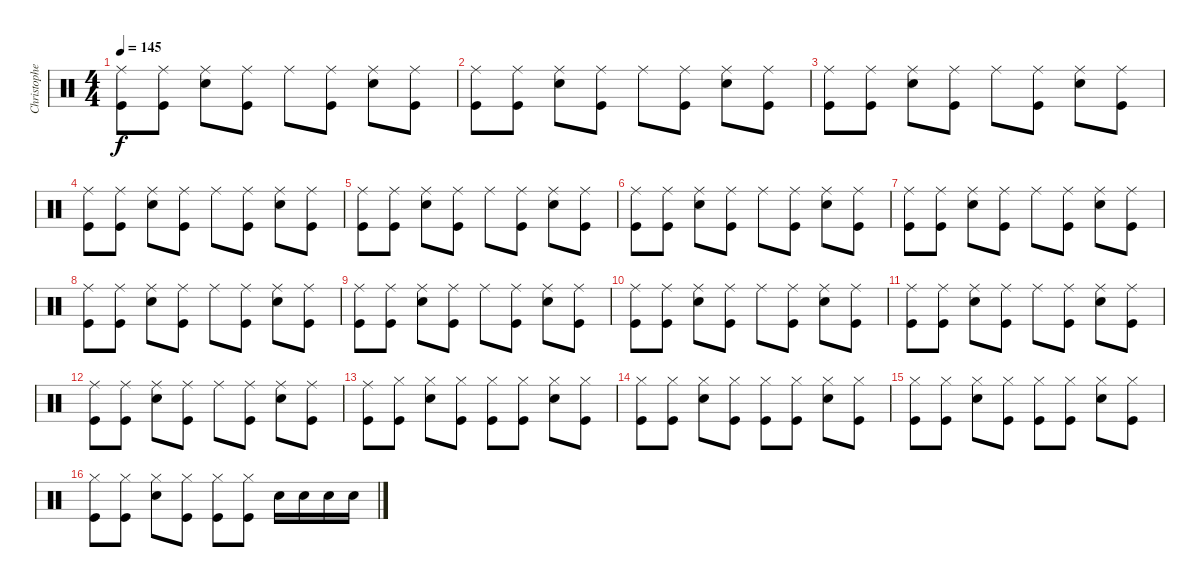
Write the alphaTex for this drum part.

\track ("Christopher - Drums" "Christophe") {instrument percussion}
\staff {score}
\articulation defaults
\ts (4 4)
\tempo 145
\clef neutral
\ks c
("Ride (middle)" "Kick (hit)").8{dy f} ("Ride (middle)" "Kick (hit)").8 ("Ride (middle)" "Snare (hit) 2").8 ("Ride (middle)" "Kick (hit)").8 "Ride (middle)".8 ("Ride (middle)" "Kick (hit)").8 ("Ride (middle)" "Snare (hit) 2").8 ("Ride (middle)" "Kick (hit)").8 |
("Ride (middle)" "Kick (hit)").8 ("Ride (middle)" "Kick (hit)").8 ("Ride (middle)" "Snare (hit) 2").8 ("Ride (middle)" "Kick (hit)").8 "Ride (middle)".8 ("Ride (middle)" "Kick (hit)").8 ("Ride (middle)" "Snare (hit) 2").8 ("Ride (middle)" "Kick (hit)").8 |
("Ride (middle)" "Kick (hit)").8 ("Ride (middle)" "Kick (hit)").8 ("Ride (middle)" "Snare (hit) 2").8 ("Ride (middle)" "Kick (hit)").8 "Ride (middle)".8 ("Ride (middle)" "Kick (hit)").8 ("Ride (middle)" "Snare (hit) 2").8 ("Ride (middle)" "Kick (hit)").8 |
("Ride (middle)" "Kick (hit)").8 ("Ride (middle)" "Kick (hit)").8 ("Ride (middle)" "Snare (hit) 2").8 ("Ride (middle)" "Kick (hit)").8 "Ride (middle)".8 ("Ride (middle)" "Kick (hit)").8 ("Ride (middle)" "Snare (hit) 2").8 ("Ride (middle)" "Kick (hit)").8 |
("Ride (middle)" "Kick (hit)").8 ("Ride (middle)" "Kick (hit)").8 ("Ride (middle)" "Snare (hit) 2").8 ("Ride (middle)" "Kick (hit)").8 "Ride (middle)".8 ("Ride (middle)" "Kick (hit)").8 ("Ride (middle)" "Snare (hit) 2").8 ("Ride (middle)" "Kick (hit)").8 |
("Ride (middle)" "Kick (hit)").8 ("Ride (middle)" "Kick (hit)").8 ("Ride (middle)" "Snare (hit) 2").8 ("Ride (middle)" "Kick (hit)").8 "Ride (middle)".8 ("Ride (middle)" "Kick (hit)").8 ("Ride (middle)" "Snare (hit) 2").8 ("Ride (middle)" "Kick (hit)").8 |
("Ride (middle)" "Kick (hit)").8 ("Ride (middle)" "Kick (hit)").8 ("Ride (middle)" "Snare (hit) 2").8 ("Ride (middle)" "Kick (hit)").8 "Ride (middle)".8 ("Ride (middle)" "Kick (hit)").8 ("Ride (middle)" "Snare (hit) 2").8 ("Ride (middle)" "Kick (hit)").8 |
("Ride (middle)" "Kick (hit)").8 ("Ride (middle)" "Kick (hit)").8 ("Ride (middle)" "Snare (hit) 2").8 ("Ride (middle)" "Kick (hit)").8 "Ride (middle)".8 ("Ride (middle)" "Kick (hit)").8 ("Ride (middle)" "Snare (hit) 2").8 ("Ride (middle)" "Kick (hit)").8 |
("Ride (middle)" "Kick (hit)").8 ("Ride (middle)" "Kick (hit)").8 ("Ride (middle)" "Snare (hit) 2").8 ("Ride (middle)" "Kick (hit)").8 "Ride (middle)".8 ("Ride (middle)" "Kick (hit)").8 ("Ride (middle)" "Snare (hit) 2").8 ("Ride (middle)" "Kick (hit)").8 |
("Ride (middle)" "Kick (hit)").8 ("Ride (middle)" "Kick (hit)").8 ("Ride (middle)" "Snare (hit) 2").8 ("Ride (middle)" "Kick (hit)").8 "Ride (middle)".8 ("Ride (middle)" "Kick (hit)").8 ("Ride (middle)" "Snare (hit) 2").8 ("Ride (middle)" "Kick (hit)").8 |
("Ride (middle)" "Kick (hit)").8 ("Ride (middle)" "Kick (hit)").8 ("Ride (middle)" "Snare (hit) 2").8 ("Ride (middle)" "Kick (hit)").8 "Ride (middle)".8 ("Ride (middle)" "Kick (hit)").8 ("Ride (middle)" "Snare (hit) 2").8 ("Ride (middle)" "Kick (hit)").8 |
("Ride (middle)" "Kick (hit)").8 ("Ride (middle)" "Kick (hit)").8 ("Ride (middle)" "Snare (hit) 2").8 ("Ride (middle)" "Kick (hit)").8 "Ride (middle)".8 ("Ride (middle)" "Kick (hit)").8 ("Ride (middle)" "Snare (hit) 2").8 ("Ride (middle)" "Kick (hit)").8 |
("Ride (middle)" "Kick (hit)").8 ("Hi-Hat (closed)" "Kick (hit)").8 ("Hi-Hat (closed)" "Snare (hit) 2").8 ("Hi-Hat (closed)" "Kick (hit)").8 ("Hi-Hat (closed)" "Kick (hit)").8 ("Hi-Hat (closed)" "Kick (hit)").8 ("Hi-Hat (closed)" "Snare (hit) 2").8 ("Hi-Hat (closed)" "Kick (hit)").8 |
("Hi-Hat (closed)" "Kick (hit)").8 ("Hi-Hat (closed)" "Kick (hit)").8 ("Hi-Hat (closed)" "Snare (hit) 2").8 ("Hi-Hat (closed)" "Kick (hit)").8 ("Hi-Hat (closed)" "Kick (hit)").8 ("Hi-Hat (closed)" "Kick (hit)").8 ("Hi-Hat (closed)" "Snare (hit) 2").8 ("Hi-Hat (closed)" "Kick (hit)").8 |
("Hi-Hat (closed)" "Kick (hit)").8 ("Hi-Hat (closed)" "Kick (hit)").8 ("Hi-Hat (closed)" "Snare (hit) 2").8 ("Hi-Hat (closed)" "Kick (hit)").8 ("Hi-Hat (closed)" "Kick (hit)").8 ("Hi-Hat (closed)" "Kick (hit)").8 ("Hi-Hat (closed)" "Snare (hit) 2").8 ("Hi-Hat (closed)" "Kick (hit)").8 |
("Hi-Hat (closed)" "Kick (hit)").8 ("Hi-Hat (closed)" "Kick (hit)").8 ("Hi-Hat (closed)" "Snare (hit) 2").8 ("Hi-Hat (closed)" "Kick (hit)").8 ("Hi-Hat (closed)" "Kick (hit)").8 ("Hi-Hat (closed)" "Kick (hit)").8 "Snare (hit) 2".16 "Snare (hit) 2".16 "Snare (hit) 2".16 "Snare (hit) 2".16
